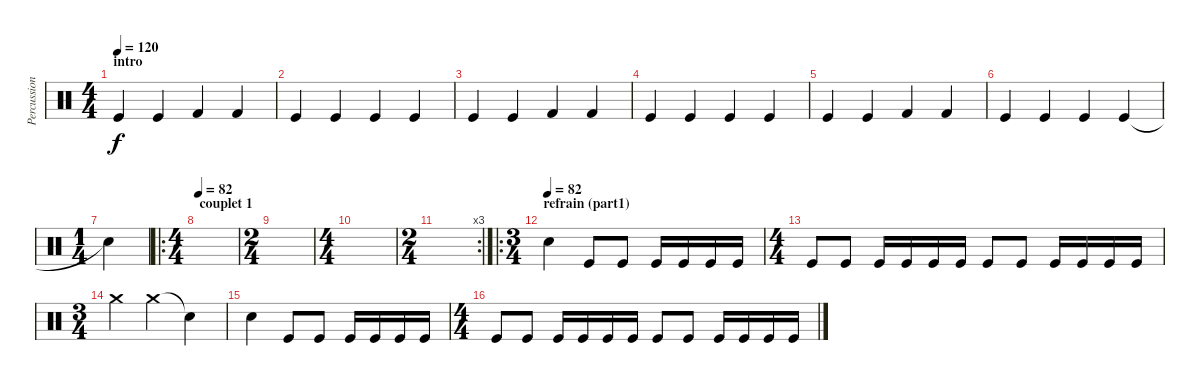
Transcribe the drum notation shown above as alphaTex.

\track ("Percussions" "Percussion") {instrument percussion}
\staff {score}
\articulation defaults
\ts (4 4)
\section ("" "intro")
\tempo 120
\tempo 82
\tempo 120
\clef neutral
\ks c "Kick (hit)".4{dy f} "Kick (hit)".4 "Kick (hit) 2".4 "Kick (hit) 2".4
|
"Kick (hit)".4 "Kick (hit)".4 "Kick (hit)".4 "Kick (hit)".4 |
"Kick (hit)".4 "Kick (hit)".4 "Kick (hit) 2".4 "Kick (hit) 2".4 |
"Kick (hit)".4 "Kick (hit)".4 "Kick (hit)".4 "Kick (hit)".4 |
"Kick (hit)".4 "Kick (hit)".4 "Kick (hit) 2".4 "Kick (hit) 2".4 |
"Kick (hit)".4 "Kick (hit)".4 "Kick (hit)".4 "Kick (hit)".4 |
\ts (1 4)
"Snare (hit)"{t}.4 |
\ro
\ts (4 4)
\section ("" "couplet 1")
\tempo 82
|
\ts (2 4)
|
\ts (4 4)
|
\rc 3
\ts (2 4)
|
\ro
\ts (3 4)
\section ("" "refrain (part1)")
\tempo (82)
"Snare (hit) 2".4 "Kick (hit)".8 "Kick (hit)".8 "Kick (hit)".16 "Kick (hit)".16 "Kick (hit)".16 "Kick (hit)".16 |
\ts (4 4)
"Kick (hit)".8 "Kick (hit)".8 "Kick (hit)".16 "Kick (hit)".16 "Kick (hit)".16 "Kick (hit)".16 "Kick (hit)".8 "Kick (hit)".8 "Kick (hit)".16 "Kick (hit)".16 "Kick (hit)".16 "Kick (hit)".16 |
\ts (3 4)
"Crash medium (hit)".4 "Crash medium (hit)".4 "Snare (hit)"{t}.4 |
"Snare (hit) 2".4 "Kick (hit)".8 "Kick (hit)".8 "Kick (hit)".16 "Kick (hit)".16 "Kick (hit)".16 "Kick (hit)".16 |
\ts (4 4)
"Kick (hit)".8 "Kick (hit)".8 "Kick (hit)".16 "Kick (hit)".16 "Kick (hit)".16 "Kick (hit)".16 "Kick (hit)".8 "Kick (hit)".8 "Kick (hit)".16 "Kick (hit)".16 "Kick (hit)".16 "Kick (hit)".16
